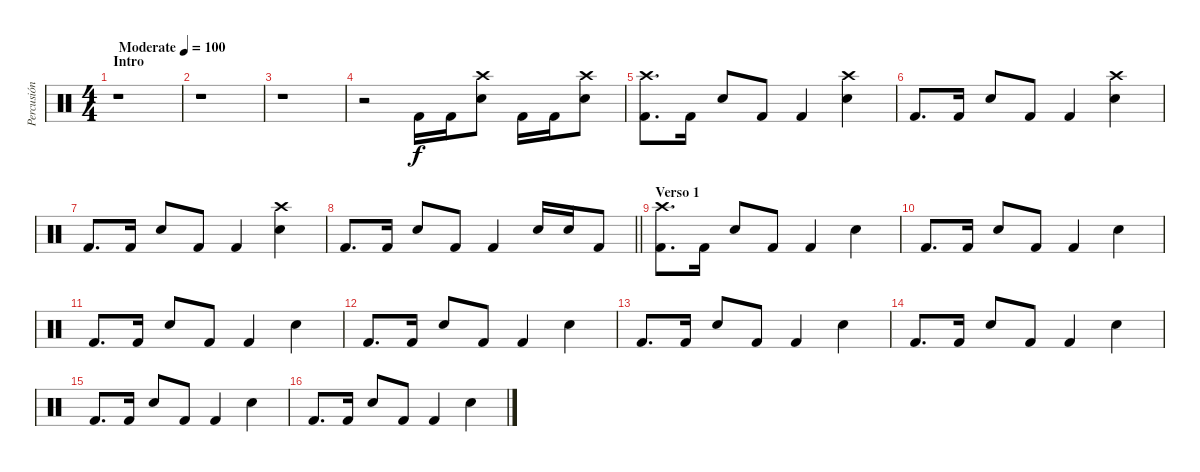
\track ("Percusión" "Percusión") {instrument percussion}
\staff {score}
\articulation defaults
\ts (4 4)
\section ("" "Intro")
\tempo (100 "Moderate")
\clef neutral
\ks c
r.1{dy f} |
r.1 |
r.1 |
r.2 "Kick (hit) 2".16 "Kick (hit) 2".16 ("Crash high (hit)" "Electric Snare (hit)").8 "Kick (hit) 2".16 "Kick (hit) 2".16 ("Crash high (hit)" "Electric Snare (hit)").8 |
("Crash high (hit)" "Kick (hit) 2").8{d} "Kick (hit) 2".16 "Electric Snare (hit)".8 "Kick (hit) 2".8 "Kick (hit) 2".4 ("Crash high (hit)" "Electric Snare (hit)").4 |
"Kick (hit) 2".8{d} "Kick (hit) 2".16 "Electric Snare (hit)".8 "Kick (hit) 2".8 "Kick (hit) 2".4 ("Crash high (hit)" "Electric Snare (hit)").4 |
"Kick (hit) 2".8{d} "Kick (hit) 2".16 "Electric Snare (hit)".8 "Kick (hit) 2".8 "Kick (hit) 2".4 ("Crash high (hit)" "Electric Snare (hit)").4 |
\barLineRight lightlight "Kick (hit) 2".8{d} "Kick (hit) 2".16 "Electric Snare (hit)".8 "Kick (hit) 2".8 "Kick (hit) 2".4 "Electric Snare (hit)".16 "Electric Snare (hit)".16 "Kick (hit) 2".8
|
\section ("" "Verso 1")
("Crash high (hit)" "Kick (hit) 2").8{d} "Kick (hit) 2".16 "Electric Snare (hit)".8 "Kick (hit) 2".8 "Kick (hit) 2".4 "Electric Snare (hit)".4 |
"Kick (hit) 2".8{d} "Kick (hit) 2".16 "Electric Snare (hit)".8 "Kick (hit) 2".8 "Kick (hit) 2".4 "Electric Snare (hit)".4 |
"Kick (hit) 2".8{d} "Kick (hit) 2".16 "Electric Snare (hit)".8 "Kick (hit) 2".8 "Kick (hit) 2".4 "Electric Snare (hit)".4 |
"Kick (hit) 2".8{d} "Kick (hit) 2".16 "Electric Snare (hit)".8 "Kick (hit) 2".8 "Kick (hit) 2".4 "Electric Snare (hit)".4 |
"Kick (hit) 2".8{d} "Kick (hit) 2".16 "Electric Snare (hit)".8 "Kick (hit) 2".8 "Kick (hit) 2".4 "Electric Snare (hit)".4 |
"Kick (hit) 2".8{d} "Kick (hit) 2".16 "Electric Snare (hit)".8 "Kick (hit) 2".8 "Kick (hit) 2".4 "Electric Snare (hit)".4 |
"Kick (hit) 2".8{d} "Kick (hit) 2".16 "Electric Snare (hit)".8 "Kick (hit) 2".8 "Kick (hit) 2".4 "Electric Snare (hit)".4 |
"Kick (hit) 2".8{d} "Kick (hit) 2".16 "Electric Snare (hit)".8 "Kick (hit) 2".8 "Kick (hit) 2".4 "Electric Snare (hit)".4
